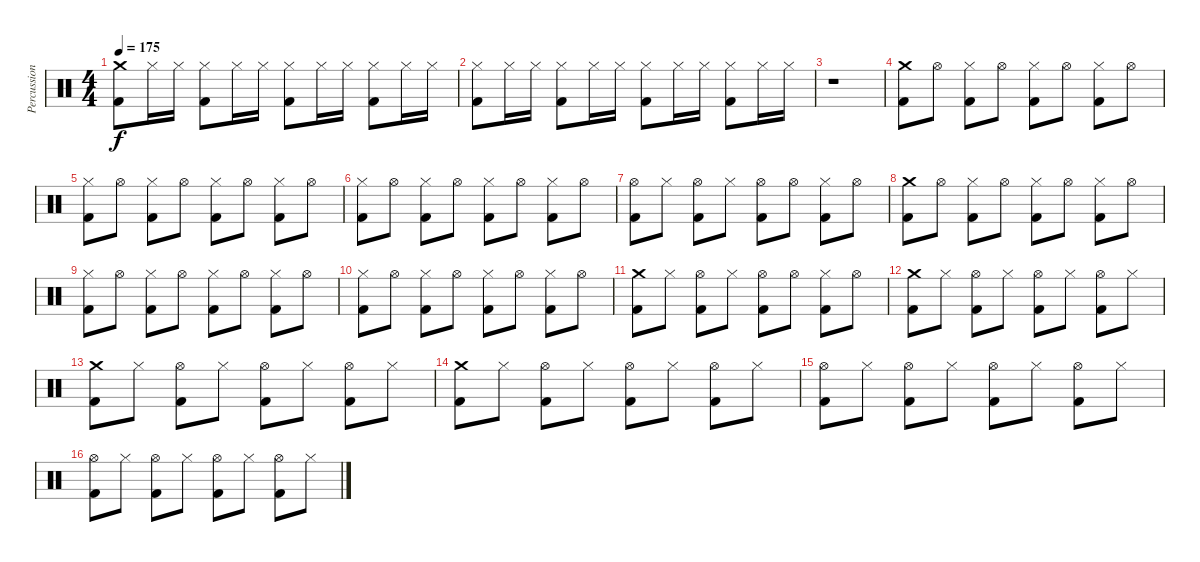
\track ("Percussions" "Percussion") {instrument percussion}
\staff {score}
\articulation defaults
\ts (4 4)
\tempo 175
\clef neutral
\ks c
("Crash medium (hit)" "Kick (hit) 2").8{dy f} "Hi-Hat (closed)".16 "Hi-Hat (closed)".16 ("Hi-Hat (closed)" "Kick (hit) 2").8 "Hi-Hat (closed)".16 "Hi-Hat (closed)".16 ("Hi-Hat (closed)" "Kick (hit) 2").8 "Hi-Hat (closed)".16 "Hi-Hat (closed)".16 ("Hi-Hat (closed)" "Kick (hit) 2").8 "Hi-Hat (closed)".16 "Hi-Hat (closed)".16 |
("Hi-Hat (closed)" "Kick (hit) 2").8 "Hi-Hat (closed)".16 "Hi-Hat (closed)".16 ("Hi-Hat (closed)" "Kick (hit) 2").8 "Hi-Hat (closed)".16 "Hi-Hat (closed)".16 ("Hi-Hat (closed)" "Kick (hit) 2").8 "Hi-Hat (closed)".16 "Hi-Hat (closed)".16 ("Hi-Hat (closed)" "Kick (hit) 2").8 "Hi-Hat (closed)".16 "Hi-Hat (closed)".16 |
r.1 |
("Crash medium (hit)" "Kick (hit) 2").8 "Hi-Hat (open)".8 ("Hi-Hat (closed)" "Kick (hit) 2").8 "Hi-Hat (open)".8 ("Hi-Hat (closed)" "Kick (hit) 2").8 "Hi-Hat (open)".8 ("Hi-Hat (closed)" "Kick (hit) 2").8 "Hi-Hat (open)".8 |
("Hi-Hat (closed)" "Kick (hit) 2").8 "Hi-Hat (open)".8 ("Hi-Hat (closed)" "Kick (hit) 2").8 "Hi-Hat (open)".8 ("Hi-Hat (closed)" "Kick (hit) 2").8 "Hi-Hat (open)".8 ("Hi-Hat (closed)" "Kick (hit) 2").8 "Hi-Hat (open)".8 |
("Hi-Hat (closed)" "Kick (hit) 2").8 "Hi-Hat (open)".8 ("Hi-Hat (closed)" "Kick (hit) 2").8 "Hi-Hat (open)".8 ("Hi-Hat (closed)" "Kick (hit) 2").8 "Hi-Hat (open)".8 ("Hi-Hat (closed)" "Kick (hit) 2").8 "Hi-Hat (open)".8 |
("Hi-Hat (open)" "Kick (hit) 2").8 "Hi-Hat (closed)".8 ("Hi-Hat (open)" "Kick (hit) 2").8 "Hi-Hat (closed)".8 ("Hi-Hat (open)" "Kick (hit) 2").8 "Hi-Hat (open)".8 ("Hi-Hat (closed)" "Kick (hit) 2").8 "Hi-Hat (open)".8 |
("Crash medium (hit)" "Kick (hit) 2").8 "Hi-Hat (open)".8 ("Hi-Hat (closed)" "Kick (hit) 2").8 "Hi-Hat (open)".8 ("Hi-Hat (closed)" "Kick (hit) 2").8 "Hi-Hat (open)".8 ("Hi-Hat (closed)" "Kick (hit) 2").8 "Hi-Hat (open)".8 |
("Hi-Hat (closed)" "Kick (hit) 2").8 "Hi-Hat (open)".8 ("Hi-Hat (closed)" "Kick (hit) 2").8 "Hi-Hat (open)".8 ("Hi-Hat (closed)" "Kick (hit) 2").8 "Hi-Hat (open)".8 ("Hi-Hat (closed)" "Kick (hit) 2").8 "Hi-Hat (open)".8 |
("Hi-Hat (closed)" "Kick (hit) 2").8 "Hi-Hat (open)".8 ("Hi-Hat (closed)" "Kick (hit) 2").8 "Hi-Hat (open)".8 ("Hi-Hat (closed)" "Kick (hit) 2").8 "Hi-Hat (open)".8 ("Hi-Hat (closed)" "Kick (hit) 2").8 "Hi-Hat (open)".8 |
("Crash medium (hit)" "Kick (hit) 2").8 "Hi-Hat (closed)".8 ("Hi-Hat (open)" "Kick (hit) 2").8 "Hi-Hat (closed)".8 ("Hi-Hat (open)" "Kick (hit) 2").8 "Hi-Hat (open)".8 ("Hi-Hat (closed)" "Kick (hit) 2").8 "Hi-Hat (open)".8 |
("Crash medium (hit)" "Kick (hit) 2").8 "Hi-Hat (closed)".8 ("Hi-Hat (open)" "Kick (hit) 2").8 "Hi-Hat (closed)".8 ("Hi-Hat (open)" "Kick (hit) 2").8 "Hi-Hat (closed)".8 ("Hi-Hat (open)" "Kick (hit) 2").8 "Hi-Hat (closed)".8 |
("Crash medium (hit)" "Kick (hit) 2").8 "Hi-Hat (closed)".8 ("Hi-Hat (open)" "Kick (hit) 2").8 "Hi-Hat (closed)".8 ("Hi-Hat (open)" "Kick (hit) 2").8 "Hi-Hat (closed)".8 ("Hi-Hat (open)" "Kick (hit) 2").8 "Hi-Hat (closed)".8 |
("Crash medium (hit)" "Kick (hit) 2").8 "Hi-Hat (closed)".8 ("Hi-Hat (open)" "Kick (hit) 2").8 "Hi-Hat (closed)".8 ("Hi-Hat (open)" "Kick (hit) 2").8 "Hi-Hat (closed)".8 ("Hi-Hat (open)" "Kick (hit) 2").8 "Hi-Hat (closed)".8 |
("Hi-Hat (open)" "Kick (hit) 2").8 "Hi-Hat (closed)".8 ("Hi-Hat (open)" "Kick (hit) 2").8 "Hi-Hat (closed)".8 ("Hi-Hat (open)" "Kick (hit) 2").8 "Hi-Hat (closed)".8 ("Hi-Hat (open)" "Kick (hit) 2").8 "Hi-Hat (closed)".8 |
("Hi-Hat (open)" "Kick (hit) 2").8 "Hi-Hat (closed)".8 ("Hi-Hat (open)" "Kick (hit) 2").8 "Hi-Hat (closed)".8 ("Hi-Hat (open)" "Kick (hit) 2").8 "Hi-Hat (closed)".8 ("Hi-Hat (open)" "Kick (hit) 2").8 "Hi-Hat (closed)".8
